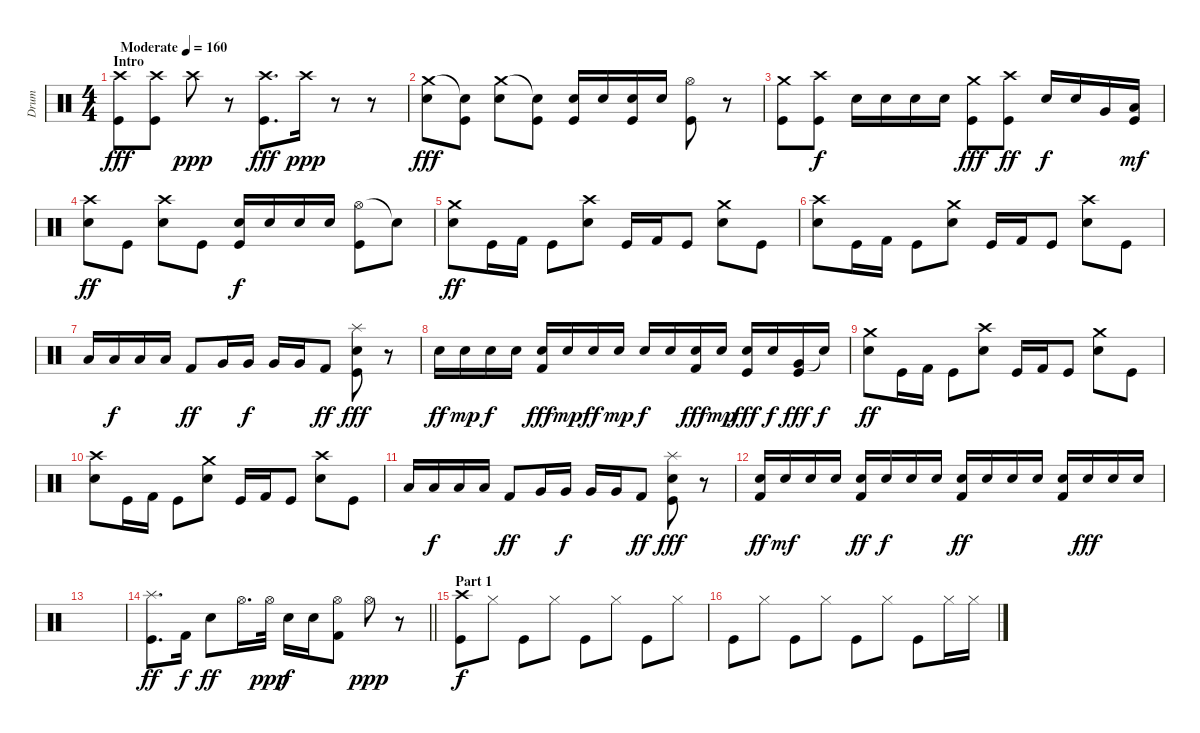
\track ("Drum" "Drum") {instrument percussion}
\staff {score}
\articulation defaults
\ts (4 4)
\section ("" "Intro")
\tempo (160 "Moderate")
\clef neutral
\ks c
("Crash high (hit)" "Kick (hit)").8{dy fff} ("Crash high (hit)" "Kick (hit)").8 "Crash high (hit)".8{dy ppp} r.8 ("Crash high (hit)" "Kick (hit)").8{d dy fff} "Crash high (hit)".16{dy ppp} r.8 r.8 |
("Crash medium (hit)" "Electric Snare (hit)").8{dy fff} ("Snare (hit)"{t} "Kick (hit)").8 ("Crash medium (hit)" "Electric Snare (hit)").8 ("Snare (hit)"{t} "Kick (hit)").8 ("Electric Snare (hit)" "Kick (hit)").16 "Electric Snare (hit)".16 ("Electric Snare (hit)" "Kick (hit)").16 "Electric Snare (hit)".16 ("Hi-Hat (open)" "Kick (hit)").8 r.8 |
("Crash medium (hit)" "Kick (hit)").8 ("Crash high (hit)" "Kick (hit)").8{dy f} "Electric Snare (hit)".16 "Electric Snare (hit)".16 "Electric Snare (hit)".16 "Electric Snare (hit)".16 ("Crash medium (hit)" "Kick (hit)").8{dy fff} ("Crash high (hit)" "Kick (hit)").8{dy ff} "Electric Snare (hit)".16{dy f} "Electric Snare (hit)".16 "Very Low Tom (hit)".16 ("Low Floor Tom (hit)" "Kick (hit)").16{dy mf} |
("Crash high (hit)" "Electric Snare (hit)").8{dy ff} "Kick (hit)".8 ("Crash high (hit)" "Electric Snare (hit)").8 "Kick (hit)".8 ("Electric Snare (hit)" "Kick (hit)").16{dy f} "Electric Snare (hit)".16 "Electric Snare (hit)".16 "Electric Snare (hit)".16 ("Hi-Hat (open)" "Kick (hit)").8 "Snare (hit)"{t}.8 |
("Crash medium (hit)" "Electric Snare (hit)").8{dy ff} "Kick (hit)".16 "Kick (hit) 2".16 "Kick (hit)".8 ("Crash high (hit)" "Electric Snare (hit)").8 "Kick (hit)".16 "Kick (hit) 2".16 "Kick (hit)".8 ("Crash medium (hit)" "Electric Snare (hit)").8 "Kick (hit)".8 |
("Crash high (hit)" "Electric Snare (hit)").8 "Kick (hit)".16 "Kick (hit) 2".16 "Kick (hit)".8 ("Crash medium (hit)" "Electric Snare (hit)").8 "Kick (hit)".16 "Kick (hit) 2".16 "Kick (hit)".8 ("Crash high (hit)" "Electric Snare (hit)").8 "Kick (hit)".8 |
"Low Tom (hit)".16 "Low Tom (hit)".16{dy f} "Low Tom (hit)".16 "Low Tom (hit)".16 "Kick (hit) 2".8{dy ff} "Very Low Tom (hit)".16 "Very Low Tom (hit)".16{dy f} "Very Low Tom (hit)".16 "Very Low Tom (hit)".16 "Kick (hit) 2".8{dy ff} ("Splash (hit)" "Electric Snare (hit)" "Kick (hit)").8{dy fff} r.8 |
"Electric Snare (hit)".16{dy ff} "Electric Snare (hit)".16{dy mp} "Electric Snare (hit)".16{dy f} "Electric Snare (hit)".16 ("Electric Snare (hit)" "Kick (hit) 2").16{dy fff} "Electric Snare (hit)".16{dy mp} "Electric Snare (hit)".16{dy ff} "Electric Snare (hit)".16{dy mp} "Electric Snare (hit)".16{dy f} "Electric Snare (hit)".16 ("Electric Snare (hit)" "Kick (hit) 2").16{dy fff} "Electric Snare (hit)".16{dy mp} ("Electric Snare (hit)" "Kick (hit)").16{dy fff} "Electric Snare (hit)".16{dy f} ("Very Low Tom (hit)" "Kick (hit)").16{dy fff} "Snare (hit)"{t}.16{dy f} |
("Crash medium (hit)" "Electric Snare (hit)").8{dy ff} "Kick (hit)".16 "Kick (hit) 2".16 "Kick (hit)".8 ("Crash high (hit)" "Electric Snare (hit)").8 "Kick (hit)".16 "Kick (hit) 2".16 "Kick (hit)".8 ("Crash medium (hit)" "Electric Snare (hit)").8 "Kick (hit)".8 |
("Crash high (hit)" "Electric Snare (hit)").8 "Kick (hit)".16 "Kick (hit) 2".16 "Kick (hit)".8 ("Crash medium (hit)" "Electric Snare (hit)").8 "Kick (hit)".16 "Kick (hit) 2".16 "Kick (hit)".8 ("Crash high (hit)" "Electric Snare (hit)").8 "Kick (hit)".8 |
"Low Tom (hit)".16 "Low Tom (hit)".16{dy f} "Low Tom (hit)".16 "Low Tom (hit)".16 "Kick (hit) 2".8{dy ff} "Very Low Tom (hit)".16 "Very Low Tom (hit)".16{dy f} "Very Low Tom (hit)".16 "Very Low Tom (hit)".16 "Kick (hit) 2".8{dy ff} ("Splash (hit)" "Electric Snare (hit)" "Kick (hit)").8{dy fff} r.8 |
("Electric Snare (hit)" "Kick (hit) 2").16{dy ff} "Electric Snare (hit)".16{dy mf} "Electric Snare (hit)".16 "Electric Snare (hit)".16 ("Electric Snare (hit)" "Kick (hit) 2").16{dy ff} "Electric Snare (hit)".16{dy f} "Electric Snare (hit)".16 "Electric Snare (hit)".16 ("Electric Snare (hit)" "Kick (hit) 2").16{dy ff} "Electric Snare (hit)".16 "Electric Snare (hit)".16 "Electric Snare (hit)".16 ("Electric Snare (hit)" "Kick (hit) 2").16 "Electric Snare (hit)".16{dy fff} "Electric Snare (hit)".16 "Electric Snare (hit)".16 |
|
\barLineRight lightlight
("Splash (hit)" "Kick (hit)").8{d dy ff} "Kick (hit) 2".16{dy f} "Electric Snare (hit)".8{dy ff} "Hi-Hat (open)".16{d} "Hi-Hat (open)".32{dy ppp} "Electric Snare (hit)".16{dy f} "Electric Snare (hit)".16 ("Hi-Hat (open)" "Kick (hit) 2").8 "Hi-Hat (open)".8{dy ppp} r.8 |
\section ("" "Part 1")
("Crash high (hit)" "Kick (hit)").8{dy f} "Hi-Hat (closed)".8 "Kick (hit)".8 "Hi-Hat (closed)".8 "Kick (hit)".8 "Hi-Hat (closed)".8 "Kick (hit)".8 "Hi-Hat (closed)".8 |
"Kick (hit)".8 "Hi-Hat (closed)".8 "Kick (hit)".8 "Hi-Hat (closed)".8 "Kick (hit)".8 "Hi-Hat (closed)".8 "Kick (hit)".8 "Hi-Hat (closed)".16 "Hi-Hat (closed)".16
